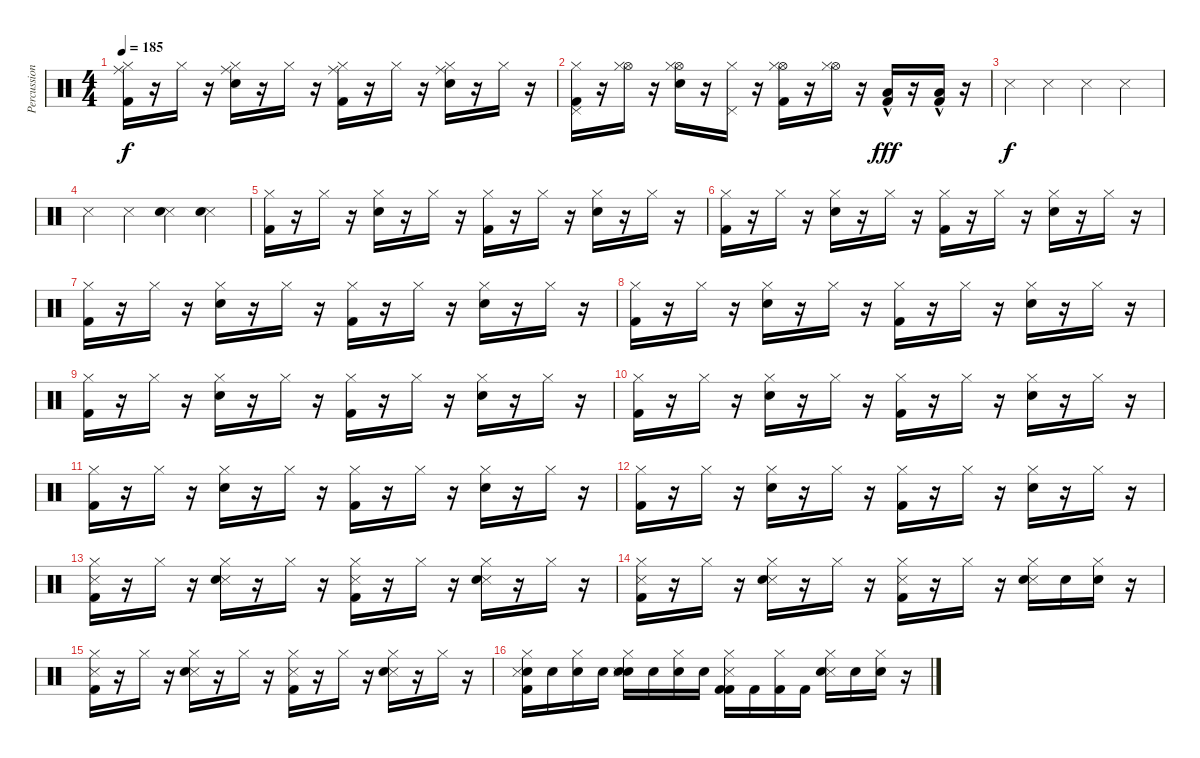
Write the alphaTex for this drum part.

\track ("Percussion" "Percussion") {instrument percussion}
\staff {score}
\articulation defaults
\ts (4 4)
\tempo 185
\clef neutral
\ks c
("Ride (middle)" "Hi-Hat (closed)" "Kick (hit) 2").16{dy f} r.16 "Hi-Hat (closed)".16 r.16 ("Ride (middle)" "Hi-Hat (closed)" "Snare (hit) 2").16 r.16 "Hi-Hat (closed)".16 r.16 ("Ride (middle)" "Hi-Hat (closed)" "Kick (hit) 2").16 r.16 "Hi-Hat (closed)".16 r.16 ("Ride (middle)" "Hi-Hat (closed)" "Snare (hit) 2").16 r.16 "Hi-Hat (closed)".16 r.16 |
("Pedal Hi-Hat (hit)" "Hi-Hat (closed)" "Kick (hit) 2").16 r.16 ("Hi-Hat (open)" "Hi-Hat (closed)").16 r.16 ("Hi-Hat (open)" "Hi-Hat (closed)" "Snare (hit) 2").16 r.16 ("Pedal Hi-Hat (hit)" "Hi-Hat (closed)").16 r.16 ("Hi-Hat (open)" "Hi-Hat (closed)" "Kick (hit) 2").16 r.16 ("Hi-Hat (open)" "Hi-Hat (closed)").16 r.16 ("Low Floor Tom (hit)"{hac} "Kick (hit) 2").16{dy fff} r.16 ("Low Floor Tom (hit)"{hac} "Kick (hit) 2").16 r.16 |
"Metronome (hit)".4{dy f} "Metronome (hit)".4 "Metronome (hit)".4 "Metronome (hit)".4 |
"Metronome (hit)".4 "Metronome (hit)".4 ("Metronome (hit)" "Snare (hit) 2").4 ("Metronome (hit)" "Snare (hit) 2").4 |
("Hi-Hat (closed)" "Kick (hit) 2").16 r.16 "Hi-Hat (closed)".16 r.16 ("Hi-Hat (closed)" "Snare (hit) 2").16 r.16 "Hi-Hat (closed)".16 r.16 ("Hi-Hat (closed)" "Kick (hit) 2").16 r.16 "Hi-Hat (closed)".16 r.16 ("Hi-Hat (closed)" "Snare (hit) 2").16 r.16 "Hi-Hat (closed)".16 r.16 |
("Hi-Hat (closed)" "Kick (hit) 2").16 r.16 "Hi-Hat (closed)".16 r.16 ("Hi-Hat (closed)" "Snare (hit) 2").16 r.16 "Hi-Hat (closed)".16 r.16 ("Hi-Hat (closed)" "Kick (hit) 2").16 r.16 "Hi-Hat (closed)".16 r.16 ("Hi-Hat (closed)" "Snare (hit) 2").16 r.16 "Hi-Hat (closed)".16 r.16 |
("Hi-Hat (closed)" "Kick (hit) 2").16 r.16 "Hi-Hat (closed)".16 r.16 ("Hi-Hat (closed)" "Snare (hit) 2").16 r.16 "Hi-Hat (closed)".16 r.16 ("Hi-Hat (closed)" "Kick (hit) 2").16 r.16 "Hi-Hat (closed)".16 r.16 ("Hi-Hat (closed)" "Snare (hit) 2").16 r.16 "Hi-Hat (closed)".16 r.16 |
("Hi-Hat (closed)" "Kick (hit) 2").16 r.16 "Hi-Hat (closed)".16 r.16 ("Hi-Hat (closed)" "Snare (hit) 2").16 r.16 "Hi-Hat (closed)".16 r.16 ("Hi-Hat (closed)" "Kick (hit) 2").16 r.16 "Hi-Hat (closed)".16 r.16 ("Hi-Hat (closed)" "Snare (hit) 2").16 r.16 "Hi-Hat (closed)".16 r.16 |
("Hi-Hat (closed)" "Kick (hit) 2").16 r.16 "Hi-Hat (closed)".16 r.16 ("Hi-Hat (closed)" "Snare (hit) 2").16 r.16 "Hi-Hat (closed)".16 r.16 ("Hi-Hat (closed)" "Kick (hit) 2").16 r.16 "Hi-Hat (closed)".16 r.16 ("Hi-Hat (closed)" "Snare (hit) 2").16 r.16 "Hi-Hat (closed)".16 r.16 |
("Hi-Hat (closed)" "Kick (hit) 2").16 r.16 "Hi-Hat (closed)".16 r.16 ("Hi-Hat (closed)" "Snare (hit) 2").16 r.16 "Hi-Hat (closed)".16 r.16 ("Hi-Hat (closed)" "Kick (hit) 2").16 r.16 "Hi-Hat (closed)".16 r.16 ("Hi-Hat (closed)" "Snare (hit) 2").16 r.16 "Hi-Hat (closed)".16 r.16 |
("Hi-Hat (closed)" "Kick (hit) 2").16 r.16 "Hi-Hat (closed)".16 r.16 ("Hi-Hat (closed)" "Snare (hit) 2").16 r.16 "Hi-Hat (closed)".16 r.16 ("Hi-Hat (closed)" "Kick (hit) 2").16 r.16 "Hi-Hat (closed)".16 r.16 ("Hi-Hat (closed)" "Snare (hit) 2").16 r.16 "Hi-Hat (closed)".16 r.16 |
("Hi-Hat (closed)" "Kick (hit) 2").16 r.16 "Hi-Hat (closed)".16 r.16 ("Hi-Hat (closed)" "Snare (hit) 2").16 r.16 "Hi-Hat (closed)".16 r.16 ("Hi-Hat (closed)" "Kick (hit) 2").16 r.16 "Hi-Hat (closed)".16 r.16 ("Hi-Hat (closed)" "Snare (hit) 2").16 r.16 "Hi-Hat (closed)".16 r.16 |
("Metronome (hit)" "Hi-Hat (closed)" "Kick (hit) 2").16 r.16 "Hi-Hat (closed)".16 r.16 ("Metronome (hit)" "Hi-Hat (closed)" "Snare (hit) 2").16 r.16 "Hi-Hat (closed)".16 r.16 ("Metronome (hit)" "Hi-Hat (closed)" "Kick (hit) 2").16 r.16 "Hi-Hat (closed)".16 r.16 ("Metronome (hit)" "Hi-Hat (closed)" "Snare (hit) 2").16 r.16 "Hi-Hat (closed)".16 r.16 |
("Metronome (hit)" "Hi-Hat (closed)" "Kick (hit) 2").16 r.16 "Hi-Hat (closed)".16 r.16 ("Metronome (hit)" "Hi-Hat (closed)" "Snare (hit) 2").16 r.16 "Hi-Hat (closed)".16 r.16 ("Metronome (hit)" "Hi-Hat (closed)" "Kick (hit) 2").16 r.16 "Hi-Hat (closed)".16 r.16 ("Metronome (hit)" "Hi-Hat (closed)" "Snare (hit) 2").16 "Snare (hit) 2".16 ("Hi-Hat (closed)" "Snare (hit) 2").16 r.16 |
("Metronome (hit)" "Hi-Hat (closed)" "Kick (hit) 2").16 r.16 "Hi-Hat (closed)".16 r.16 ("Metronome (hit)" "Hi-Hat (closed)" "Snare (hit) 2").16 r.16 "Hi-Hat (closed)".16 r.16 ("Metronome (hit)" "Hi-Hat (closed)" "Kick (hit) 2").16 r.16 "Hi-Hat (closed)".16 r.16 ("Metronome (hit)" "Hi-Hat (closed)" "Snare (hit) 2").16 r.16 "Hi-Hat (closed)".16 r.16 |
("Snare (hit) 2" "Metronome (hit)" "Hi-Hat (closed)" "Kick (hit) 2").16 "Snare (hit) 2".16 ("Snare (hit) 2" "Hi-Hat (closed)").16 "Snare (hit) 2".16 ("Snare (hit) 2" "Metronome (hit)" "Hi-Hat (closed)" "Snare (hit) 2").16 "Snare (hit) 2".16 ("Snare (hit) 2" "Hi-Hat (closed)").16 "Snare (hit) 2".16 ("Kick (hit) 2" "Metronome (hit)" "Hi-Hat (closed)" "Kick (hit) 2").16 "Kick (hit) 2".16 ("Kick (hit) 2" "Hi-Hat (closed)").16 "Kick (hit) 2".16 ("Metronome (hit)" "Hi-Hat (closed)" "Snare (hit) 2").16 "Snare (hit) 2".16 ("Hi-Hat (closed)" "Snare (hit) 2").16 r.16
